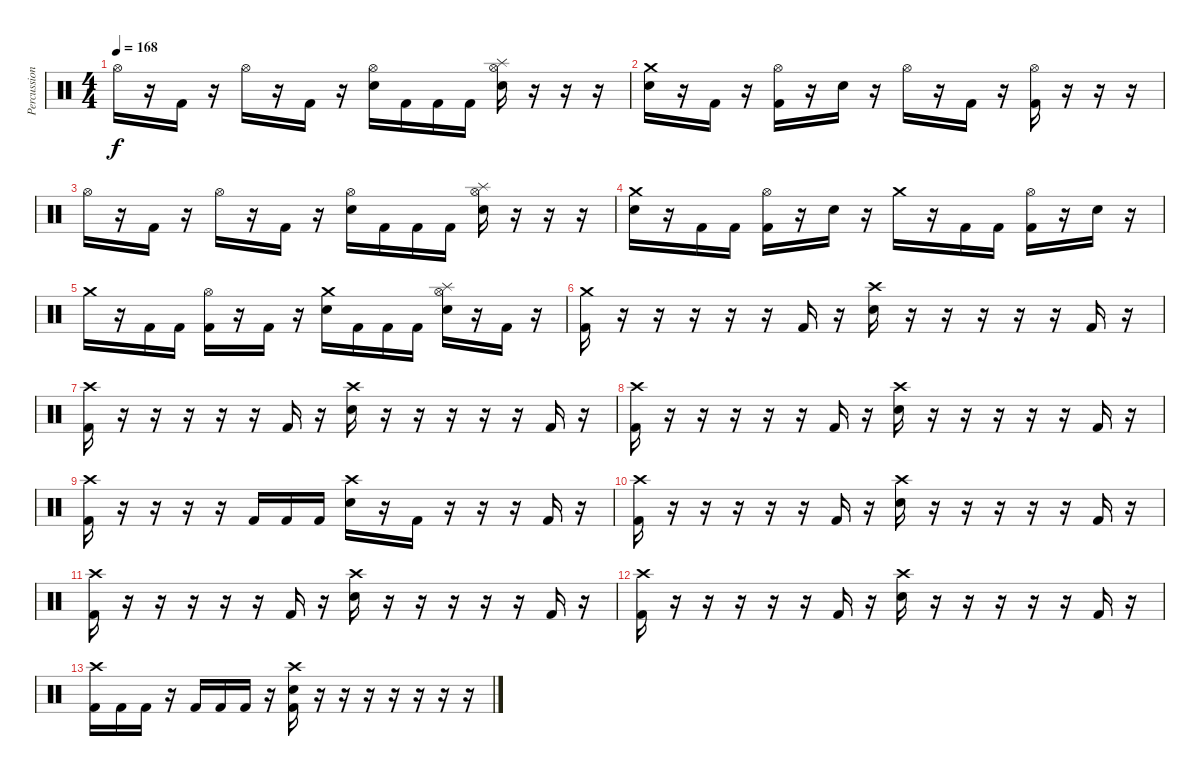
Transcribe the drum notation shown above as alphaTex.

\track ("Percussion" "Percussion") {instrument percussion}
\staff {score}
\articulation defaults
\ts (4 4)
\tempo 168
\clef neutral
\ks c "Hi-Hat (open)".16{dy f}
r.16 "Kick (hit) 2".16 r.16 "Hi-Hat (open)".16 r.16 "Kick (hit) 2".16 r.16 ("Hi-Hat (open)" "Electric Snare (hit)").16 "Kick (hit) 2".16 "Kick (hit) 2".16 "Kick (hit) 2".16 ("Hi-Hat (open)" "Splash (hit)" "Electric Snare (hit)").16 r.16 r.16 r.16 |
("Crash medium (hit)" "Electric Snare (hit)").16 r.16 "Kick (hit) 2".16 r.16 ("Hi-Hat (open)" "Kick (hit) 2").16 r.16 "Electric Snare (hit)".16 r.16 "Hi-Hat (open)".16 r.16 "Kick (hit) 2".16 r.16 ("Hi-Hat (open)" "Kick (hit) 2").16 r.16 r.16 r.16 |
"Hi-Hat (open)".16 r.16 "Kick (hit) 2".16 r.16 "Hi-Hat (open)".16 r.16 "Kick (hit) 2".16 r.16 ("Hi-Hat (open)" "Electric Snare (hit)").16 "Kick (hit) 2".16 "Kick (hit) 2".16 "Kick (hit) 2".16 ("Hi-Hat (open)" "Splash (hit)" "Electric Snare (hit)").16 r.16 r.16 r.16 |
("Crash medium (hit)" "Electric Snare (hit)").16 r.16 "Kick (hit) 2".16 "Kick (hit) 2".16 ("Hi-Hat (open)" "Kick (hit) 2").16 r.16 "Electric Snare (hit)".16 r.16 "Crash medium (hit)".16 r.16 "Kick (hit) 2".16 "Kick (hit) 2".16 ("Hi-Hat (open)" "Kick (hit) 2").16 r.16 "Electric Snare (hit)".16 r.16 |
"Crash medium (hit)".16 r.16 "Kick (hit) 2".16 "Kick (hit) 2".16 ("Hi-Hat (open)" "Kick (hit) 2").16 r.16 "Kick (hit) 2".16 r.16 ("Crash medium (hit)" "Electric Snare (hit)").16 "Kick (hit) 2".16 "Kick (hit) 2".16 "Kick (hit) 2".16 ("Hi-Hat (open)" "Splash (hit)" "Electric Snare (hit)").16 r.16 "Kick (hit) 2".16 r.16 |
("Crash medium (hit)" "Kick (hit) 2").16 r.16 r.16 r.16 r.16 r.16 "Kick (hit) 2".16 r.16 ("Crash high (hit)" "Electric Snare (hit)").16 r.16 r.16 r.16 r.16 r.16 "Kick (hit) 2".16 r.16 |
("Crash high (hit)" "Kick (hit) 2").16 r.16 r.16 r.16 r.16 r.16 "Kick (hit) 2".16 r.16 ("Crash high (hit)" "Electric Snare (hit)").16 r.16 r.16 r.16 r.16 r.16 "Kick (hit) 2".16 r.16 |
("Crash high (hit)" "Kick (hit) 2").16 r.16 r.16 r.16 r.16 r.16 "Kick (hit) 2".16 r.16 ("Crash high (hit)" "Electric Snare (hit)").16 r.16 r.16 r.16 r.16 r.16 "Kick (hit) 2".16 r.16 |
("Crash high (hit)" "Kick (hit) 2").16 r.16 r.16 r.16 r.16 "Kick (hit) 2".16 "Kick (hit) 2".16 "Kick (hit) 2".16 ("Crash high (hit)" "Electric Snare (hit)").16 r.16 "Kick (hit) 2".16 r.16 r.16 r.16 "Kick (hit) 2".16 r.16 |
("Crash high (hit)" "Kick (hit) 2").16 r.16 r.16 r.16 r.16 r.16 "Kick (hit) 2".16 r.16 ("Crash high (hit)" "Electric Snare (hit)").16 r.16 r.16 r.16 r.16 r.16 "Kick (hit) 2".16 r.16 |
("Crash high (hit)" "Kick (hit) 2").16 r.16 r.16 r.16 r.16 r.16 "Kick (hit) 2".16 r.16 ("Crash high (hit)" "Electric Snare (hit)").16 r.16 r.16 r.16 r.16 r.16 "Kick (hit) 2".16 r.16 |
("Crash high (hit)" "Kick (hit) 2").16 r.16 r.16 r.16 r.16 r.16 "Kick (hit) 2".16 r.16 ("Crash high (hit)" "Electric Snare (hit)").16 r.16 r.16 r.16 r.16 r.16 "Kick (hit) 2".16 r.16 |
("Crash high (hit)" "Kick (hit) 2").16 "Kick (hit) 2".16 "Kick (hit) 2".16 r.16 "Kick (hit) 2".16 "Kick (hit) 2".16 "Kick (hit) 2".16 r.16 ("Crash high (hit)" "Electric Snare (hit)" "Kick (hit) 2").16 r.16 r.16 r.16 r.16 r.16 r.16 r.16
